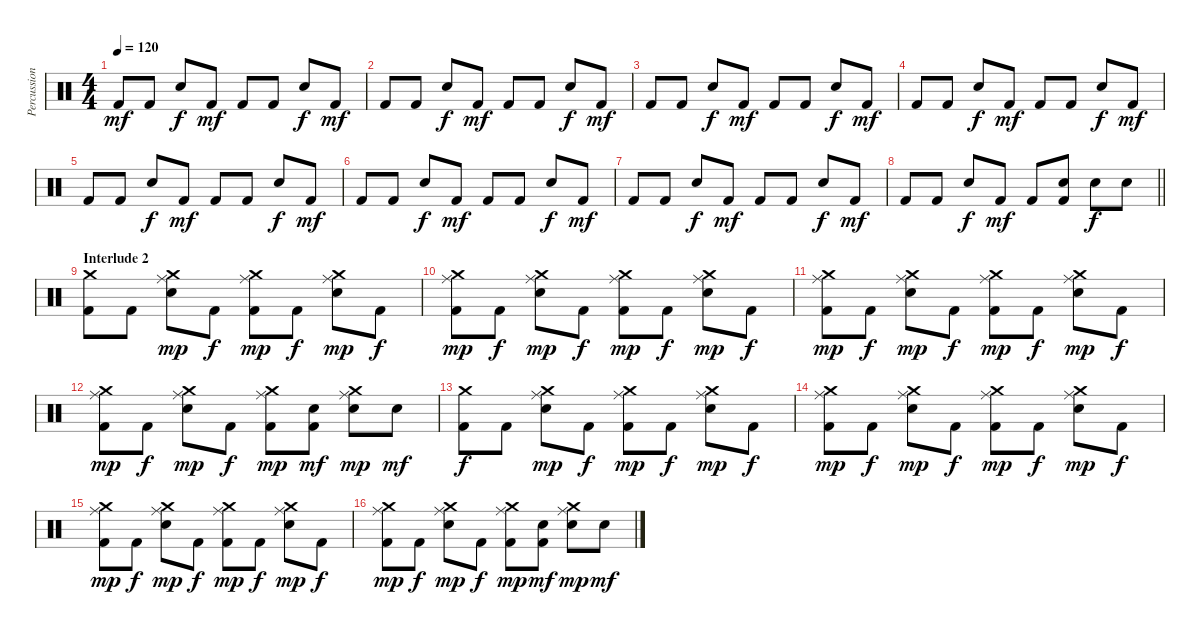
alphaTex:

\track ("Percussion" "Percussion") {instrument percussion}
\staff {score}
\articulation defaults
\ts (4 4)
\tempo 120
\clef neutral
\ks c "Kick (hit) 2".8{dy mf} "Kick (hit) 2".8 "Electric Snare (hit)".8{dy f} "Kick (hit) 2".8{dy mf} "Kick (hit) 2".8 "Kick (hit) 2".8 "Electric Snare (hit)".8{dy f} "Kick (hit) 2".8{dy mf}
|
"Kick (hit) 2".8 "Kick (hit) 2".8 "Electric Snare (hit)".8{dy f} "Kick (hit) 2".8{dy mf} "Kick (hit) 2".8 "Kick (hit) 2".8 "Electric Snare (hit)".8{dy f} "Kick (hit) 2".8{dy mf} |
"Kick (hit) 2".8 "Kick (hit) 2".8 "Electric Snare (hit)".8{dy f} "Kick (hit) 2".8{dy mf} "Kick (hit) 2".8 "Kick (hit) 2".8 "Electric Snare (hit)".8{dy f} "Kick (hit) 2".8{dy mf} |
"Kick (hit) 2".8 "Kick (hit) 2".8 "Electric Snare (hit)".8{dy f} "Kick (hit) 2".8{dy mf} "Kick (hit) 2".8 "Kick (hit) 2".8 "Electric Snare (hit)".8{dy f} "Kick (hit) 2".8{dy mf} |
"Kick (hit) 2".8 "Kick (hit) 2".8 "Electric Snare (hit)".8{dy f} "Kick (hit) 2".8{dy mf} "Kick (hit) 2".8 "Kick (hit) 2".8 "Electric Snare (hit)".8{dy f} "Kick (hit) 2".8{dy mf} |
"Kick (hit) 2".8 "Kick (hit) 2".8 "Electric Snare (hit)".8{dy f} "Kick (hit) 2".8{dy mf} "Kick (hit) 2".8 "Kick (hit) 2".8 "Electric Snare (hit)".8{dy f} "Kick (hit) 2".8{dy mf} |
"Kick (hit) 2".8 "Kick (hit) 2".8 "Electric Snare (hit)".8{dy f} "Kick (hit) 2".8{dy mf} "Kick (hit) 2".8 "Kick (hit) 2".8 "Electric Snare (hit)".8{dy f} "Kick (hit) 2".8{dy mf} |
\barLineRight lightlight "Kick (hit) 2".8 "Kick (hit) 2".8 "Electric Snare (hit)".8{dy f} "Kick (hit) 2".8{dy mf} "Kick (hit) 2".8
("Electric Snare (hit)" "Kick (hit) 2").8 "Electric Snare (hit)".8{dy f} "Electric Snare (hit)".8 |
\section ("" "Interlude 2")
("Crash medium (hit)" "Kick (hit) 2").8 "Kick (hit) 2".8 ("Ride (middle)" "Crash medium (hit)" "Electric Snare (hit)").8{dy mp} "Kick (hit) 2".8{dy f} ("Ride (middle)" "Crash medium (hit)" "Kick (hit) 2").8{dy mp} "Kick (hit) 2".8{dy f} ("Ride (middle)" "Crash medium (hit)" "Electric Snare (hit)").8{dy mp} "Kick (hit) 2".8{dy f} |
("Ride (middle)" "Crash medium (hit)" "Kick (hit) 2").8{dy mp} "Kick (hit) 2".8{dy f} ("Ride (middle)" "Crash medium (hit)" "Electric Snare (hit)").8{dy mp} "Kick (hit) 2".8{dy f} ("Ride (middle)" "Crash medium (hit)" "Kick (hit) 2").8{dy mp} "Kick (hit) 2".8{dy f} ("Ride (middle)" "Crash medium (hit)" "Electric Snare (hit)").8{dy mp} "Kick (hit) 2".8{dy f} |
("Ride (middle)" "Crash medium (hit)" "Kick (hit) 2").8{dy mp} "Kick (hit) 2".8{dy f} ("Ride (middle)" "Crash medium (hit)" "Electric Snare (hit)").8{dy mp} "Kick (hit) 2".8{dy f} ("Ride (middle)" "Crash medium (hit)" "Kick (hit) 2").8{dy mp} "Kick (hit) 2".8{dy f} ("Ride (middle)" "Crash medium (hit)" "Electric Snare (hit)").8{dy mp} "Kick (hit) 2".8{dy f} |
("Ride (middle)" "Crash medium (hit)" "Kick (hit) 2").8{dy mp} "Kick (hit) 2".8{dy f} ("Ride (middle)" "Crash medium (hit)" "Electric Snare (hit)").8{dy mp} "Kick (hit) 2".8{dy f} ("Ride (middle)" "Crash medium (hit)" "Kick (hit) 2").8{dy mp} ("Electric Snare (hit)" "Kick (hit) 2").8{dy mf} ("Ride (middle)" "Crash medium (hit)" "Electric Snare (hit)").8{dy mp} "Electric Snare (hit)".8{dy mf} |
("Crash medium (hit)" "Kick (hit) 2").8{dy f} "Kick (hit) 2".8 ("Ride (middle)" "Crash medium (hit)" "Electric Snare (hit)").8{dy mp} "Kick (hit) 2".8{dy f} ("Ride (middle)" "Crash medium (hit)" "Kick (hit) 2").8{dy mp} "Kick (hit) 2".8{dy f} ("Ride (middle)" "Crash medium (hit)" "Electric Snare (hit)").8{dy mp} "Kick (hit) 2".8{dy f} |
("Ride (middle)" "Crash medium (hit)" "Kick (hit) 2").8{dy mp} "Kick (hit) 2".8{dy f} ("Ride (middle)" "Crash medium (hit)" "Electric Snare (hit)").8{dy mp} "Kick (hit) 2".8{dy f} ("Ride (middle)" "Crash medium (hit)" "Kick (hit) 2").8{dy mp} "Kick (hit) 2".8{dy f} ("Ride (middle)" "Crash medium (hit)" "Electric Snare (hit)").8{dy mp} "Kick (hit) 2".8{dy f} |
("Ride (middle)" "Crash medium (hit)" "Kick (hit) 2").8{dy mp} "Kick (hit) 2".8{dy f} ("Ride (middle)" "Crash medium (hit)" "Electric Snare (hit)").8{dy mp} "Kick (hit) 2".8{dy f} ("Ride (middle)" "Crash medium (hit)" "Kick (hit) 2").8{dy mp} "Kick (hit) 2".8{dy f} ("Ride (middle)" "Crash medium (hit)" "Electric Snare (hit)").8{dy mp} "Kick (hit) 2".8{dy f} |
("Ride (middle)" "Crash medium (hit)" "Kick (hit) 2").8{dy mp} "Kick (hit) 2".8{dy f} ("Ride (middle)" "Crash medium (hit)" "Electric Snare (hit)").8{dy mp} "Kick (hit) 2".8{dy f} ("Ride (middle)" "Crash medium (hit)" "Kick (hit) 2").8{dy mp} ("Electric Snare (hit)" "Kick (hit) 2").8{dy mf} ("Ride (middle)" "Crash medium (hit)" "Electric Snare (hit)").8{dy mp} "Electric Snare (hit)".8{dy mf}
